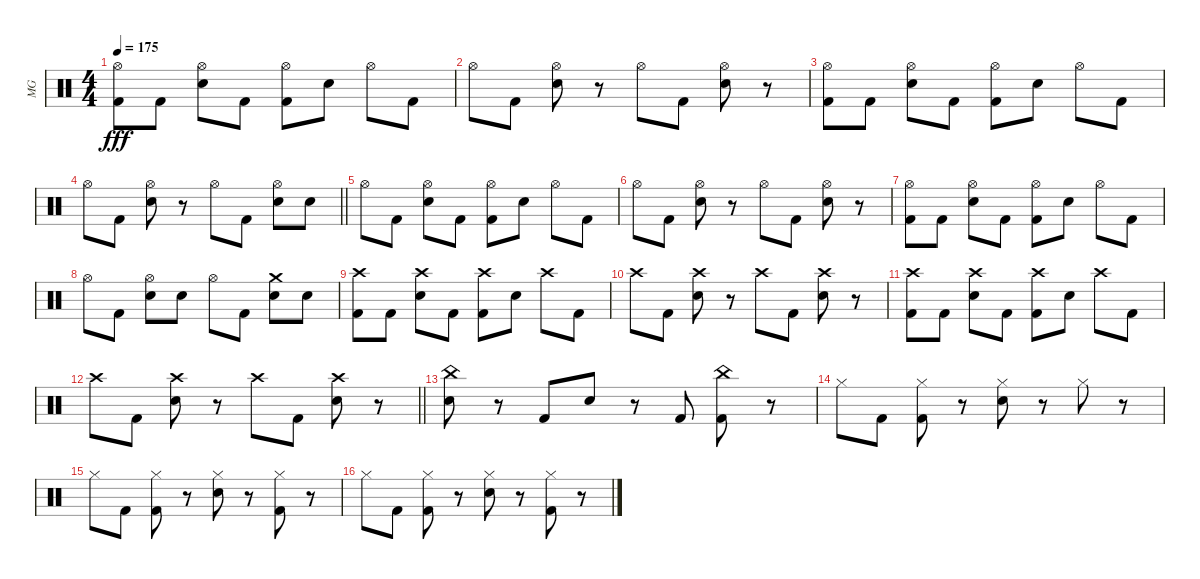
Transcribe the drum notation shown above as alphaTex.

\track ("MG" "MG") {instrument percussion}
\staff {score}
\articulation defaults
\ts (4 4)
\tempo 175
\clef neutral
\ks c
("Hi-Hat (open)" "Kick (hit) 2").8{dy fff} "Kick (hit) 2".8 ("Hi-Hat (open)" "Electric Snare (hit)").8 "Kick (hit) 2".8 ("Hi-Hat (open)" "Kick (hit) 2").8 "Electric Snare (hit)".8 "Hi-Hat (open)".8 "Kick (hit) 2".8 |
"Hi-Hat (open)".8 "Kick (hit) 2".8 ("Hi-Hat (open)" "Electric Snare (hit)").8 r.8 "Hi-Hat (open)".8 "Kick (hit) 2".8 ("Hi-Hat (open)" "Electric Snare (hit)").8 r.8 |
("Hi-Hat (open)" "Kick (hit) 2").8 "Kick (hit) 2".8 ("Hi-Hat (open)" "Electric Snare (hit)").8 "Kick (hit) 2".8 ("Hi-Hat (open)" "Kick (hit) 2").8 "Electric Snare (hit)".8 "Hi-Hat (open)".8 "Kick (hit) 2".8 |
\barLineRight lightlight "Hi-Hat (open)".8 "Kick (hit) 2".8
("Hi-Hat (open)" "Electric Snare (hit)").8 r.8 "Hi-Hat (open)".8 "Kick (hit) 2".8 ("Hi-Hat (open)" "Electric Snare (hit)").8 "Electric Snare (hit)".8 |
\section ("" "")
"Hi-Hat (open)".8 "Kick (hit) 2".8 ("Hi-Hat (open)" "Electric Snare (hit)").8 "Kick (hit) 2".8 ("Hi-Hat (open)" "Kick (hit) 2").8 "Electric Snare (hit)".8 "Hi-Hat (open)".8 "Kick (hit) 2".8 |
"Hi-Hat (open)".8 "Kick (hit) 2".8 ("Hi-Hat (open)" "Electric Snare (hit)").8 r.8 "Hi-Hat (open)".8 "Kick (hit) 2".8 ("Hi-Hat (open)" "Electric Snare (hit)").8 r.8 |
("Hi-Hat (open)" "Kick (hit) 2").8 "Kick (hit) 2".8 ("Hi-Hat (open)" "Electric Snare (hit)").8 "Kick (hit) 2".8 ("Hi-Hat (open)" "Kick (hit) 2").8 "Electric Snare (hit)".8 "Hi-Hat (open)".8 "Kick (hit) 2".8 |
"Hi-Hat (open)".8 "Kick (hit) 2".8 ("Hi-Hat (open)" "Electric Snare (hit)").8 "Electric Snare (hit)".8 "Hi-Hat (open)".8 "Kick (hit) 2".8 ("Crash medium (hit)" "Electric Snare (hit)").8 "Electric Snare (hit)".8 |
("Crash high (hit)" "Kick (hit) 2").8 "Kick (hit) 2".8 ("Crash high (hit)" "Electric Snare (hit)").8 "Kick (hit) 2".8 ("Crash high (hit)" "Kick (hit) 2").8 "Electric Snare (hit)".8 "Crash high (hit)".8 "Kick (hit) 2".8 |
"Crash high (hit)".8 "Kick (hit) 2".8 ("Crash high (hit)" "Electric Snare (hit)").8 r.8 "Crash high (hit)".8 "Kick (hit) 2".8 ("Crash high (hit)" "Electric Snare (hit)").8 r.8 |
("Crash high (hit)" "Kick (hit) 2").8 "Kick (hit) 2".8 ("Crash high (hit)" "Electric Snare (hit)").8 "Kick (hit) 2".8 ("Crash high (hit)" "Kick (hit) 2").8 "Electric Snare (hit)".8 "Crash high (hit)".8 "Kick (hit) 2".8 |
\barLineRight lightlight "Crash high (hit)".8 "Kick (hit) 2".8
("Crash high (hit)" "Electric Snare (hit)").8 r.8 "Crash high (hit)".8 "Kick (hit) 2".8 ("Crash high (hit)" "Electric Snare (hit)").8 r.8 |
\section ("" "")
("China (hit)" "Electric Snare (hit)").8 r.8 "Kick (hit) 2".8 "Electric Snare (hit)".8 r.8 "Kick (hit) 2".8 ("China (hit)" "Kick (hit) 2").8 r.8 |
"Hi-Hat (closed)".8 "Kick (hit) 2".8 ("Hi-Hat (closed)" "Kick (hit) 2").8 r.8 ("Hi-Hat (closed)" "Electric Snare (hit)").8 r.8 "Hi-Hat (closed)".8 r.8 |
"Hi-Hat (closed)".8 "Kick (hit) 2".8 ("Hi-Hat (closed)" "Kick (hit) 2").8 r.8 ("Hi-Hat (closed)" "Electric Snare (hit)").8 r.8 ("Hi-Hat (closed)" "Kick (hit) 2").8 r.8 |
"Hi-Hat (closed)".8 "Kick (hit) 2".8 ("Hi-Hat (closed)" "Kick (hit) 2").8 r.8 ("Hi-Hat (closed)" "Electric Snare (hit)").8 r.8 ("Hi-Hat (closed)" "Kick (hit) 2").8 r.8
